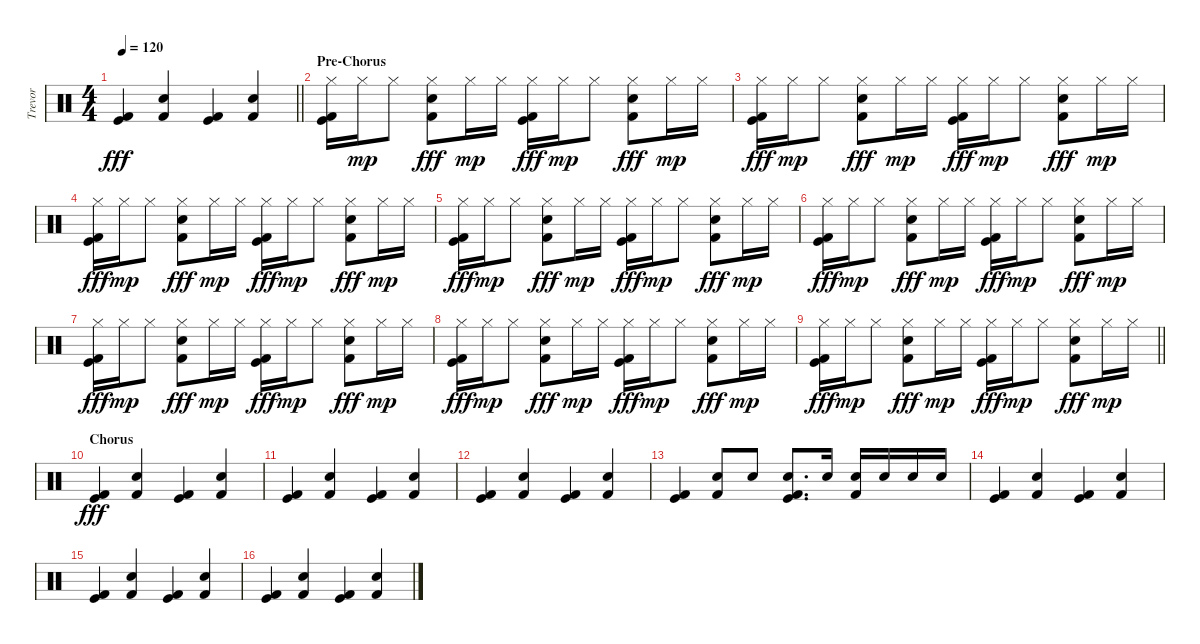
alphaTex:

\track ("Trevor" "Trevor") {instrument percussion}
\staff {score}
\articulation defaults
\ts (4 4)
\tempo 120
\clef neutral
\barLineRight lightlight
\ks c
("Kick (hit)" "Kick (hit) 2").4{dy fff} ("Kick (hit) 2" "Snare (hit) 2").4 ("Kick (hit)" "Kick (hit) 2").4 ("Kick (hit) 2" "Snare (hit) 2").4 |
\section ("" "Pre-Chorus")
("Hi-Hat (closed)" "Kick (hit)" "Kick (hit) 2").16 "Hi-Hat (closed)".16{dy mp} "Hi-Hat (closed)".8 ("Hi-Hat (closed)" "Kick (hit) 2" "Snare (hit) 2").8{dy fff} "Hi-Hat (closed)".16{dy mp} "Hi-Hat (closed)".16 ("Hi-Hat (closed)" "Kick (hit)" "Kick (hit) 2").16{dy fff} "Hi-Hat (closed)".16{dy mp} "Hi-Hat (closed)".8 ("Hi-Hat (closed)" "Kick (hit) 2" "Snare (hit) 2").8{dy fff} "Hi-Hat (closed)".16{dy mp} "Hi-Hat (closed)".16 |
("Hi-Hat (closed)" "Kick (hit)" "Kick (hit) 2").16{dy fff} "Hi-Hat (closed)".16{dy mp} "Hi-Hat (closed)".8 ("Hi-Hat (closed)" "Kick (hit) 2" "Snare (hit) 2").8{dy fff} "Hi-Hat (closed)".16{dy mp} "Hi-Hat (closed)".16 ("Hi-Hat (closed)" "Kick (hit)" "Kick (hit) 2").16{dy fff} "Hi-Hat (closed)".16{dy mp} "Hi-Hat (closed)".8 ("Hi-Hat (closed)" "Kick (hit) 2" "Snare (hit) 2").8{dy fff} "Hi-Hat (closed)".16{dy mp} "Hi-Hat (closed)".16 |
("Hi-Hat (closed)" "Kick (hit)" "Kick (hit) 2").16{dy fff} "Hi-Hat (closed)".16{dy mp} "Hi-Hat (closed)".8 ("Hi-Hat (closed)" "Kick (hit) 2" "Snare (hit) 2").8{dy fff} "Hi-Hat (closed)".16{dy mp} "Hi-Hat (closed)".16 ("Hi-Hat (closed)" "Kick (hit)" "Kick (hit) 2").16{dy fff} "Hi-Hat (closed)".16{dy mp} "Hi-Hat (closed)".8 ("Hi-Hat (closed)" "Kick (hit) 2" "Snare (hit) 2").8{dy fff} "Hi-Hat (closed)".16{dy mp} "Hi-Hat (closed)".16 |
("Hi-Hat (closed)" "Kick (hit)" "Kick (hit) 2").16{dy fff} "Hi-Hat (closed)".16{dy mp} "Hi-Hat (closed)".8 ("Hi-Hat (closed)" "Kick (hit) 2" "Snare (hit) 2").8{dy fff} "Hi-Hat (closed)".16{dy mp} "Hi-Hat (closed)".16 ("Hi-Hat (closed)" "Kick (hit)" "Kick (hit) 2").16{dy fff} "Hi-Hat (closed)".16{dy mp} "Hi-Hat (closed)".8 ("Hi-Hat (closed)" "Kick (hit) 2" "Snare (hit) 2").8{dy fff} "Hi-Hat (closed)".16{dy mp} "Hi-Hat (closed)".16 |
("Hi-Hat (closed)" "Kick (hit)" "Kick (hit) 2").16{dy fff} "Hi-Hat (closed)".16{dy mp} "Hi-Hat (closed)".8 ("Hi-Hat (closed)" "Kick (hit) 2" "Snare (hit) 2").8{dy fff} "Hi-Hat (closed)".16{dy mp} "Hi-Hat (closed)".16 ("Hi-Hat (closed)" "Kick (hit)" "Kick (hit) 2").16{dy fff} "Hi-Hat (closed)".16{dy mp} "Hi-Hat (closed)".8 ("Hi-Hat (closed)" "Kick (hit) 2" "Snare (hit) 2").8{dy fff} "Hi-Hat (closed)".16{dy mp} "Hi-Hat (closed)".16 |
("Hi-Hat (closed)" "Kick (hit)" "Kick (hit) 2").16{dy fff} "Hi-Hat (closed)".16{dy mp} "Hi-Hat (closed)".8 ("Hi-Hat (closed)" "Kick (hit) 2" "Snare (hit) 2").8{dy fff} "Hi-Hat (closed)".16{dy mp} "Hi-Hat (closed)".16 ("Hi-Hat (closed)" "Kick (hit)" "Kick (hit) 2").16{dy fff} "Hi-Hat (closed)".16{dy mp} "Hi-Hat (closed)".8 ("Hi-Hat (closed)" "Kick (hit) 2" "Snare (hit) 2").8{dy fff} "Hi-Hat (closed)".16{dy mp} "Hi-Hat (closed)".16 |
("Hi-Hat (closed)" "Kick (hit)" "Kick (hit) 2").16{dy fff} "Hi-Hat (closed)".16{dy mp} "Hi-Hat (closed)".8 ("Hi-Hat (closed)" "Kick (hit) 2" "Snare (hit) 2").8{dy fff} "Hi-Hat (closed)".16{dy mp} "Hi-Hat (closed)".16 ("Hi-Hat (closed)" "Kick (hit)" "Kick (hit) 2").16{dy fff} "Hi-Hat (closed)".16{dy mp} "Hi-Hat (closed)".8 ("Hi-Hat (closed)" "Kick (hit) 2" "Snare (hit) 2").8{dy fff} "Hi-Hat (closed)".16{dy mp} "Hi-Hat (closed)".16 |
\barLineRight lightlight
("Hi-Hat (closed)" "Kick (hit)" "Kick (hit) 2").16{dy fff} "Hi-Hat (closed)".16{dy mp} "Hi-Hat (closed)".8 ("Hi-Hat (closed)" "Kick (hit) 2" "Snare (hit) 2").8{dy fff} "Hi-Hat (closed)".16{dy mp} "Hi-Hat (closed)".16 ("Hi-Hat (closed)" "Kick (hit)" "Kick (hit) 2").16{dy fff} "Hi-Hat (closed)".16{dy mp} "Hi-Hat (closed)".8 ("Hi-Hat (closed)" "Kick (hit) 2" "Snare (hit) 2").8{dy fff} "Hi-Hat (closed)".16{dy mp} "Hi-Hat (closed)".16 |
\section ("" "Chorus")
("Kick (hit)" "Kick (hit) 2").4{dy fff} ("Kick (hit) 2" "Snare (hit) 2").4 ("Kick (hit)" "Kick (hit) 2").4 ("Kick (hit) 2" "Snare (hit) 2").4 |
("Kick (hit)" "Kick (hit) 2").4 ("Kick (hit) 2" "Snare (hit) 2").4 ("Kick (hit)" "Kick (hit) 2").4 ("Kick (hit) 2" "Snare (hit) 2").4 |
("Kick (hit)" "Kick (hit) 2").4 ("Kick (hit) 2" "Snare (hit) 2").4 ("Kick (hit)" "Kick (hit) 2").4 ("Kick (hit) 2" "Snare (hit) 2").4 |
("Kick (hit)" "Kick (hit) 2").4 ("Kick (hit) 2" "Snare (hit) 2").8 "Snare (hit) 2".8 ("Kick (hit)" "Kick (hit) 2" "Snare (hit) 2").8{d} "Snare (hit) 2".16 ("Kick (hit) 2" "Snare (hit) 2").16 "Snare (hit) 2".16 "Snare (hit) 2".16 "Snare (hit) 2".16 |
("Kick (hit)" "Kick (hit) 2").4 ("Kick (hit) 2" "Snare (hit) 2").4 ("Kick (hit)" "Kick (hit) 2").4 ("Kick (hit) 2" "Snare (hit) 2").4 |
("Kick (hit)" "Kick (hit) 2").4 ("Kick (hit) 2" "Snare (hit) 2").4 ("Kick (hit)" "Kick (hit) 2").4 ("Kick (hit) 2" "Snare (hit) 2").4 |
("Kick (hit)" "Kick (hit) 2").4 ("Kick (hit) 2" "Snare (hit) 2").4 ("Kick (hit)" "Kick (hit) 2").4 ("Kick (hit) 2" "Snare (hit) 2").4
